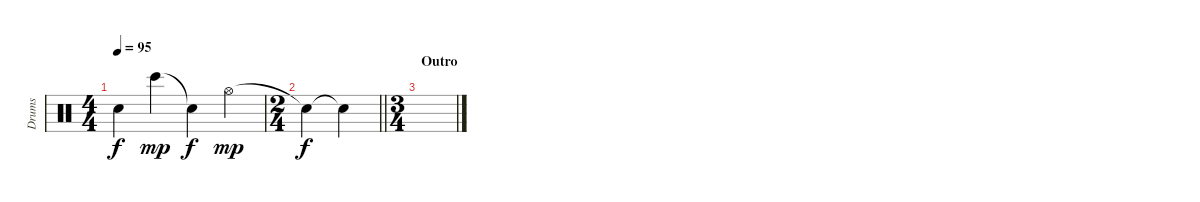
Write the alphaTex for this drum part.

\track ("Drums" "Drums") {instrument percussion}
\staff {score}
\articulation defaults
\ts (4 4)
\tempo 95
\clef neutral
\ks c "Snare (hit)"{t}.4{dy f} "Bongo High (hit)".4{dy mp} "Snare (hit)"{t}.4{dy f} "Hi-Hat (open)".4{dy mp}
|
\ts (2 4)
\barLineRight lightlight "Snare (hit)"{t}.4{dy f} "Snare (hit)"{t}.4
|
\ts (3 4)
\section ("" "Outro")
